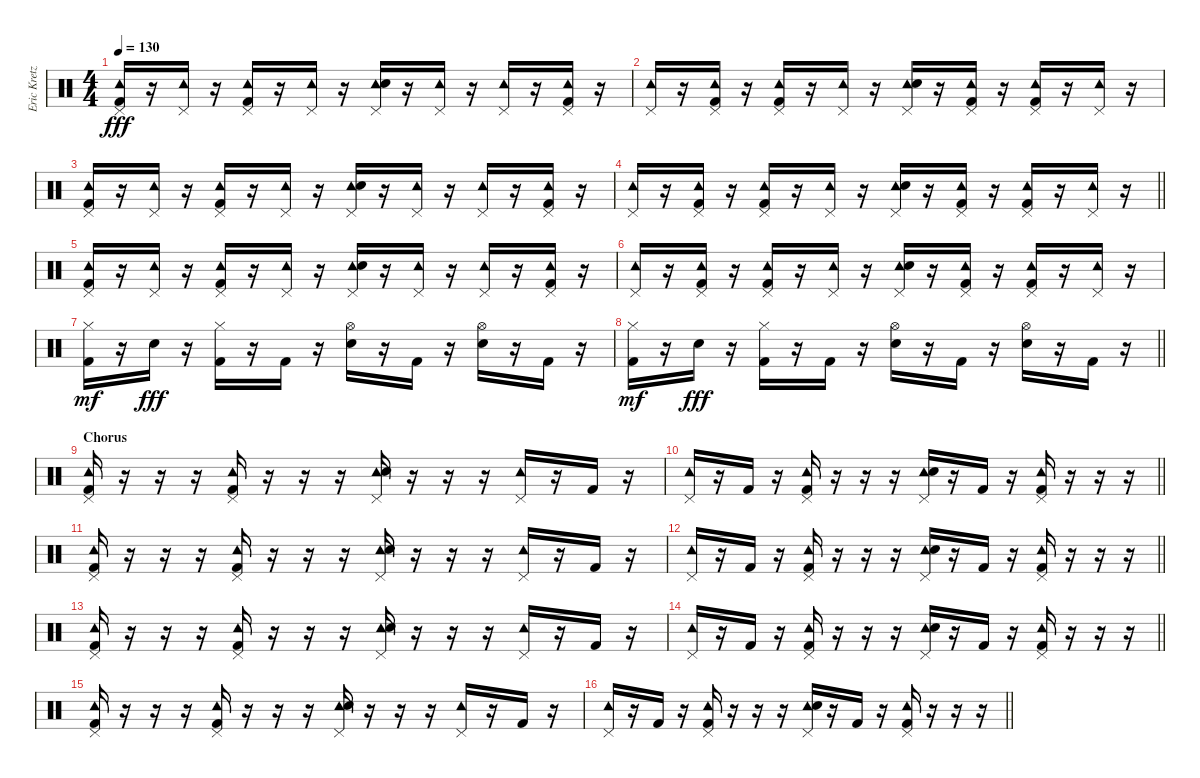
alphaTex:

\track ("Eric Kretz (Drums)" "Eric Kretz") {instrument percussion}
\staff {score}
\articulation defaults
\ts (4 4)
\tempo 130
\clef neutral
\ks c
("Pedal Hi-Hat (hit)" "Tambourine (hit)" "Kick (hit) 2").16{dy fff} r.16 ("Pedal Hi-Hat (hit)" "Tambourine (hit)").16 r.16 ("Pedal Hi-Hat (hit)" "Tambourine (hit)" "Kick (hit) 2").16 r.16 ("Pedal Hi-Hat (hit)" "Tambourine (hit)").16 r.16 ("Pedal Hi-Hat (hit)" "Tambourine (hit)" "Electric Snare (hit)").16 r.16 ("Pedal Hi-Hat (hit)" "Tambourine (hit)").16 r.16 ("Pedal Hi-Hat (hit)" "Tambourine (hit)").16 r.16 ("Pedal Hi-Hat (hit)" "Tambourine (hit)" "Kick (hit) 2").16 r.16 |
("Pedal Hi-Hat (hit)" "Tambourine (hit)").16 r.16 ("Pedal Hi-Hat (hit)" "Tambourine (hit)" "Kick (hit) 2").16 r.16 ("Pedal Hi-Hat (hit)" "Tambourine (hit)" "Kick (hit) 2").16 r.16 ("Pedal Hi-Hat (hit)" "Tambourine (hit)").16 r.16 ("Pedal Hi-Hat (hit)" "Tambourine (hit)" "Electric Snare (hit)").16 r.16 ("Pedal Hi-Hat (hit)" "Tambourine (hit)" "Kick (hit) 2").16 r.16 ("Pedal Hi-Hat (hit)" "Tambourine (hit)" "Kick (hit) 2").16 r.16 ("Pedal Hi-Hat (hit)" "Tambourine (hit)").16 r.16 |
("Pedal Hi-Hat (hit)" "Tambourine (hit)" "Kick (hit) 2").16 r.16 ("Pedal Hi-Hat (hit)" "Tambourine (hit)").16 r.16 ("Pedal Hi-Hat (hit)" "Tambourine (hit)" "Kick (hit) 2").16 r.16 ("Pedal Hi-Hat (hit)" "Tambourine (hit)").16 r.16 ("Pedal Hi-Hat (hit)" "Tambourine (hit)" "Electric Snare (hit)").16 r.16 ("Pedal Hi-Hat (hit)" "Tambourine (hit)").16 r.16 ("Pedal Hi-Hat (hit)" "Tambourine (hit)").16 r.16 ("Pedal Hi-Hat (hit)" "Tambourine (hit)" "Kick (hit) 2").16 r.16 |
\barLineRight lightlight
("Pedal Hi-Hat (hit)" "Tambourine (hit)").16 r.16 ("Pedal Hi-Hat (hit)" "Tambourine (hit)" "Kick (hit) 2").16 r.16 ("Pedal Hi-Hat (hit)" "Tambourine (hit)" "Kick (hit) 2").16 r.16 ("Pedal Hi-Hat (hit)" "Tambourine (hit)").16 r.16 ("Pedal Hi-Hat (hit)" "Tambourine (hit)" "Electric Snare (hit)").16 r.16 ("Pedal Hi-Hat (hit)" "Tambourine (hit)" "Kick (hit) 2").16 r.16 ("Pedal Hi-Hat (hit)" "Tambourine (hit)" "Kick (hit) 2").16 r.16 ("Pedal Hi-Hat (hit)" "Tambourine (hit)").16 r.16 |
\section ("" "")
("Pedal Hi-Hat (hit)" "Tambourine (hit)" "Kick (hit) 2").16 r.16 ("Pedal Hi-Hat (hit)" "Tambourine (hit)").16 r.16 ("Pedal Hi-Hat (hit)" "Tambourine (hit)" "Kick (hit) 2").16 r.16 ("Pedal Hi-Hat (hit)" "Tambourine (hit)").16 r.16 ("Pedal Hi-Hat (hit)" "Tambourine (hit)" "Electric Snare (hit)").16 r.16 ("Pedal Hi-Hat (hit)" "Tambourine (hit)").16 r.16 ("Pedal Hi-Hat (hit)" "Tambourine (hit)").16 r.16 ("Pedal Hi-Hat (hit)" "Tambourine (hit)" "Kick (hit) 2").16 r.16 |
("Pedal Hi-Hat (hit)" "Tambourine (hit)").16 r.16 ("Pedal Hi-Hat (hit)" "Tambourine (hit)" "Kick (hit) 2").16 r.16 ("Pedal Hi-Hat (hit)" "Tambourine (hit)" "Kick (hit) 2").16 r.16 ("Pedal Hi-Hat (hit)" "Tambourine (hit)").16 r.16 ("Pedal Hi-Hat (hit)" "Tambourine (hit)" "Electric Snare (hit)").16 r.16 ("Pedal Hi-Hat (hit)" "Tambourine (hit)" "Kick (hit) 2").16 r.16 ("Pedal Hi-Hat (hit)" "Tambourine (hit)" "Kick (hit) 2").16 r.16 ("Pedal Hi-Hat (hit)" "Tambourine (hit)").16 r.16 |
("Hi-Hat (closed)" "Kick (hit) 2").16{dy mf} r.16 "Electric Snare (hit)".16{dy fff} r.16 ("Hi-Hat (closed)" "Kick (hit) 2").16 r.16 "Kick (hit) 2".16 r.16 ("Hi-Hat (open)" "Electric Snare (hit)").16 r.16 "Kick (hit) 2".16 r.16 ("Hi-Hat (open)" "Electric Snare (hit)").16 r.16 "Kick (hit) 2".16 r.16 |
\barLineRight lightlight
("Hi-Hat (closed)" "Kick (hit) 2").16{dy mf} r.16 "Electric Snare (hit)".16{dy fff} r.16 ("Hi-Hat (closed)" "Kick (hit) 2").16 r.16 "Kick (hit) 2".16 r.16 ("Hi-Hat (open)" "Electric Snare (hit)").16 r.16 "Kick (hit) 2".16 r.16 ("Hi-Hat (open)" "Electric Snare (hit)").16 r.16 "Kick (hit) 2".16 r.16 |
\section ("" "Chorus")
("Pedal Hi-Hat (hit)" "Tambourine (hit)" "Kick (hit) 2").16 r.16 r.16 r.16 ("Pedal Hi-Hat (hit)" "Tambourine (hit)" "Kick (hit) 2").16 r.16 r.16 r.16 ("Pedal Hi-Hat (hit)" "Tambourine (hit)" "Electric Snare (hit)").16 r.16 r.16 r.16 ("Pedal Hi-Hat (hit)" "Tambourine (hit)").16 r.16 "Kick (hit) 2".16 r.16 |
\barLineRight lightlight
("Pedal Hi-Hat (hit)" "Tambourine (hit)").16 r.16 "Kick (hit) 2".16 r.16 ("Pedal Hi-Hat (hit)" "Tambourine (hit)" "Kick (hit) 2").16 r.16 r.16 r.16 ("Pedal Hi-Hat (hit)" "Tambourine (hit)" "Electric Snare (hit)").16 r.16 "Kick (hit) 2".16 r.16 ("Pedal Hi-Hat (hit)" "Tambourine (hit)" "Kick (hit) 2").16 r.16 r.16 r.16 |
("Pedal Hi-Hat (hit)" "Tambourine (hit)" "Kick (hit) 2").16 r.16 r.16 r.16 ("Pedal Hi-Hat (hit)" "Tambourine (hit)" "Kick (hit) 2").16 r.16 r.16 r.16 ("Pedal Hi-Hat (hit)" "Tambourine (hit)" "Electric Snare (hit)").16 r.16 r.16 r.16 ("Pedal Hi-Hat (hit)" "Tambourine (hit)").16 r.16 "Kick (hit) 2".16 r.16 |
\barLineRight lightlight
("Pedal Hi-Hat (hit)" "Tambourine (hit)").16 r.16 "Kick (hit) 2".16 r.16 ("Pedal Hi-Hat (hit)" "Tambourine (hit)" "Kick (hit) 2").16 r.16 r.16 r.16 ("Pedal Hi-Hat (hit)" "Tambourine (hit)" "Electric Snare (hit)").16 r.16 "Kick (hit) 2".16 r.16 ("Pedal Hi-Hat (hit)" "Tambourine (hit)" "Kick (hit) 2").16 r.16 r.16 r.16 |
("Pedal Hi-Hat (hit)" "Tambourine (hit)" "Kick (hit) 2").16 r.16 r.16 r.16 ("Pedal Hi-Hat (hit)" "Tambourine (hit)" "Kick (hit) 2").16 r.16 r.16 r.16 ("Pedal Hi-Hat (hit)" "Tambourine (hit)" "Electric Snare (hit)").16 r.16 r.16 r.16 ("Pedal Hi-Hat (hit)" "Tambourine (hit)").16 r.16 "Kick (hit) 2".16 r.16 |
\barLineRight lightlight
("Pedal Hi-Hat (hit)" "Tambourine (hit)").16 r.16 "Kick (hit) 2".16 r.16 ("Pedal Hi-Hat (hit)" "Tambourine (hit)" "Kick (hit) 2").16 r.16 r.16 r.16 ("Pedal Hi-Hat (hit)" "Tambourine (hit)" "Electric Snare (hit)").16 r.16 "Kick (hit) 2".16 r.16 ("Pedal Hi-Hat (hit)" "Tambourine (hit)" "Kick (hit) 2").16 r.16 r.16 r.16 |
("Pedal Hi-Hat (hit)" "Tambourine (hit)" "Kick (hit) 2").16 r.16 r.16 r.16 ("Pedal Hi-Hat (hit)" "Tambourine (hit)" "Kick (hit) 2").16 r.16 r.16 r.16 ("Pedal Hi-Hat (hit)" "Tambourine (hit)" "Electric Snare (hit)").16 r.16 r.16 r.16 ("Pedal Hi-Hat (hit)" "Tambourine (hit)").16 r.16 "Kick (hit) 2".16 r.16 |
\barLineRight lightlight
("Pedal Hi-Hat (hit)" "Tambourine (hit)").16 r.16 "Kick (hit) 2".16 r.16 ("Pedal Hi-Hat (hit)" "Tambourine (hit)" "Kick (hit) 2").16 r.16 r.16 r.16 ("Pedal Hi-Hat (hit)" "Tambourine (hit)" "Electric Snare (hit)").16 r.16 "Kick (hit) 2".16 r.16 ("Pedal Hi-Hat (hit)" "Tambourine (hit)" "Kick (hit) 2").16 r.16 r.16 r.16
